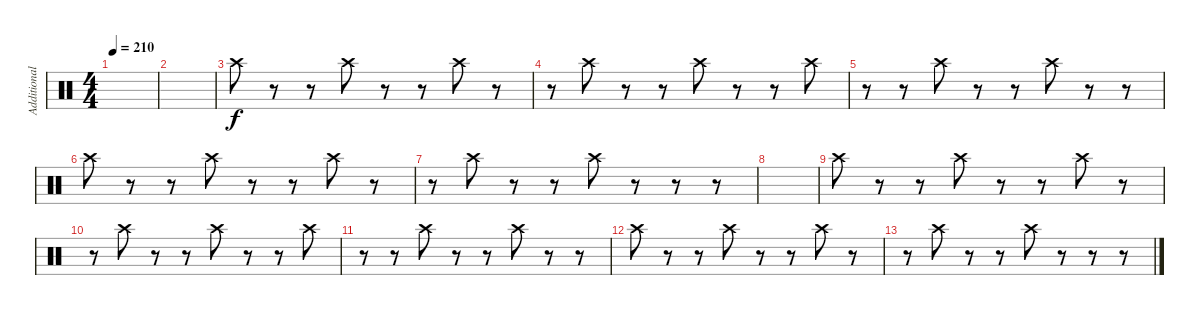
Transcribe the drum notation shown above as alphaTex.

\track ("Additional drums" "Additional") {instrument percussion}
\staff {score}
\articulation defaults
\ts (4 4)
\tempo 210
\clef neutral
\ks c
|
|
"Crash high (hit)".8 r.8 r.8 "Crash high (hit)".8 r.8 r.8 "Crash high (hit)".8 r.8 |
r.8 "Crash high (hit)".8 r.8 r.8 "Crash high (hit)".8 r.8 r.8 "Crash high (hit)".8 |
r.8 r.8 "Crash high (hit)".8 r.8 r.8 "Crash high (hit)".8 r.8 r.8 |
"Crash high (hit)".8 r.8 r.8 "Crash high (hit)".8 r.8 r.8 "Crash high (hit)".8 r.8 |
r.8 "Crash high (hit)".8 r.8 r.8 "Crash high (hit)".8 r.8 r.8 r.8 |
|
"Crash high (hit)".8 r.8 r.8 "Crash high (hit)".8 r.8 r.8 "Crash high (hit)".8 r.8 |
r.8 "Crash high (hit)".8 r.8 r.8 "Crash high (hit)".8 r.8 r.8 "Crash high (hit)".8 |
r.8 r.8 "Crash high (hit)".8 r.8 r.8 "Crash high (hit)".8 r.8 r.8 |
"Crash high (hit)".8 r.8 r.8 "Crash high (hit)".8 r.8 r.8 "Crash high (hit)".8 r.8 |
r.8 "Crash high (hit)".8 r.8 r.8 "Crash high (hit)".8 r.8 r.8 r.8
